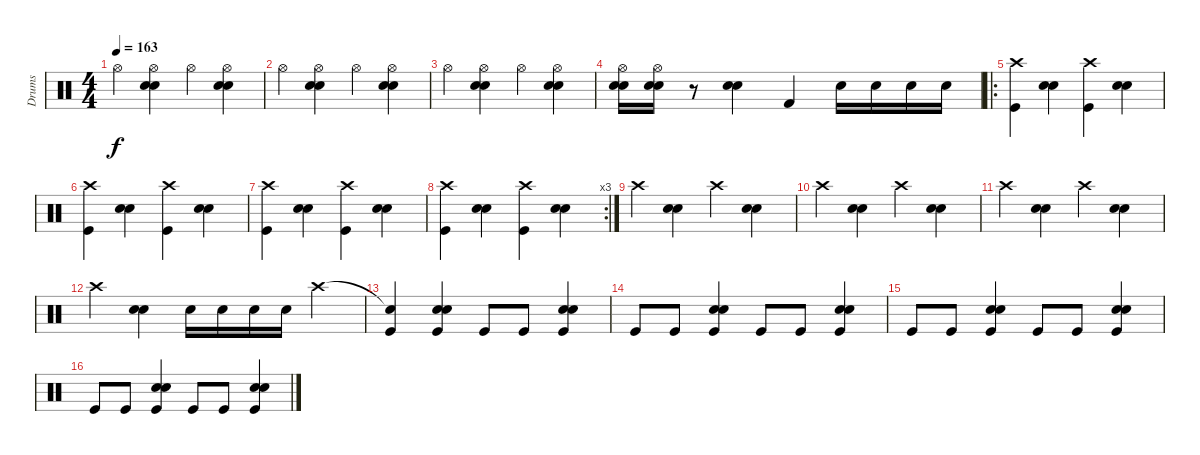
\track ("Drums" "Drums") {instrument percussion}
\staff {score}
\articulation defaults
\ts (4 4)
\tempo 163
\clef neutral
\ks c "Hi-Hat (open)".4{dy f}
("Hi-Hat (open)" "Electric Snare (hit)" "Electric Snare (hit)").4 "Hi-Hat (open)".4 ("Hi-Hat (open)" "Electric Snare (hit)" "Electric Snare (hit)").4 |
"Hi-Hat (open)".4 ("Hi-Hat (open)" "Electric Snare (hit)" "Electric Snare (hit)").4 "Hi-Hat (open)".4 ("Hi-Hat (open)" "Electric Snare (hit)" "Electric Snare (hit)").4 |
"Hi-Hat (open)".4 ("Hi-Hat (open)" "Electric Snare (hit)" "Electric Snare (hit)").4 "Hi-Hat (open)".4 ("Hi-Hat (open)" "Electric Snare (hit)" "Electric Snare (hit)").4 |
("Hi-Hat (open)" "Electric Snare (hit)" "Electric Snare (hit)").16 ("Hi-Hat (open)" "Electric Snare (hit)" "Electric Snare (hit)").16 r.8 ("Snare (hit) 2" "Snare (hit) 2").4 "Kick (hit) 2".4 "Electric Snare (hit)".16 "Electric Snare (hit)".16 "Electric Snare (hit)".16 "Electric Snare (hit)".16 |
\ro
("Crash high (hit)" "Kick (hit)").4 ("Electric Snare (hit)" "Electric Snare (hit)").4 ("Crash high (hit)" "Kick (hit)").4 ("Electric Snare (hit)" "Electric Snare (hit)").4 |
("Crash high (hit)" "Kick (hit)").4 ("Electric Snare (hit)" "Electric Snare (hit)").4 ("Crash high (hit)" "Kick (hit)").4 ("Electric Snare (hit)" "Electric Snare (hit)").4 |
("Crash high (hit)" "Kick (hit)").4 ("Electric Snare (hit)" "Electric Snare (hit)").4 ("Crash high (hit)" "Kick (hit)").4 ("Electric Snare (hit)" "Electric Snare (hit)").4 |
\rc 3
("Crash high (hit)" "Kick (hit)").4 ("Electric Snare (hit)" "Electric Snare (hit)").4 ("Crash high (hit)" "Kick (hit)").4 ("Electric Snare (hit)" "Electric Snare (hit)").4 |
"Crash high (hit)".4 ("Electric Snare (hit)" "Electric Snare (hit)").4 "Crash high (hit)".4 ("Electric Snare (hit)" "Electric Snare (hit)").4 |
"Crash high (hit)".4 ("Electric Snare (hit)" "Electric Snare (hit)").4 "Crash high (hit)".4 ("Electric Snare (hit)" "Electric Snare (hit)").4 |
"Crash high (hit)".4 ("Electric Snare (hit)" "Electric Snare (hit)").4 "Crash high (hit)".4 ("Electric Snare (hit)" "Electric Snare (hit)").4 |
"Crash high (hit)".4 ("Electric Snare (hit)" "Electric Snare (hit)").4 "Electric Snare (hit)".16 "Electric Snare (hit)".16 "Electric Snare (hit)".16 "Electric Snare (hit)".16 "Crash high (hit)".4 |
("Snare (hit)"{t} "Kick (hit)").4 ("Kick (hit)" "Electric Snare (hit)" "Electric Snare (hit)").4 "Kick (hit)".8 "Kick (hit)".8 ("Kick (hit)" "Electric Snare (hit)" "Electric Snare (hit)").4 |
"Kick (hit)".8 "Kick (hit)".8 ("Kick (hit)" "Electric Snare (hit)" "Electric Snare (hit)").4 "Kick (hit)".8 "Kick (hit)".8 ("Kick (hit)" "Electric Snare (hit)" "Electric Snare (hit)").4 |
"Kick (hit)".8 "Kick (hit)".8 ("Kick (hit)" "Electric Snare (hit)" "Electric Snare (hit)").4 "Kick (hit)".8 "Kick (hit)".8 ("Kick (hit)" "Electric Snare (hit)" "Electric Snare (hit)").4 |
"Kick (hit)".8 "Kick (hit)".8 ("Kick (hit)" "Electric Snare (hit)" "Electric Snare (hit)").4 "Kick (hit)".8 "Kick (hit)".8 ("Kick (hit)" "Electric Snare (hit)" "Electric Snare (hit)").4
